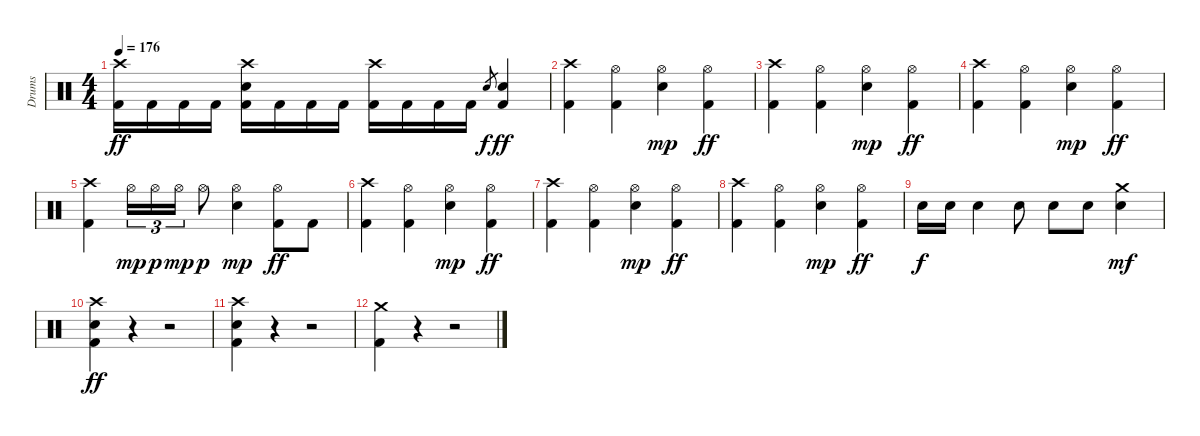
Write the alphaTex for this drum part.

\track ("Drums" "Drums") {instrument percussion}
\staff {score}
\articulation defaults
\ts (4 4)
\tempo 176
\clef neutral
\ks c
("Crash high (hit)" "Kick (hit) 2").16{dy ff} "Kick (hit) 2".16 "Kick (hit) 2".16 "Kick (hit) 2".16 ("Crash high (hit)" "Electric Snare (hit)" "Kick (hit) 2").16 "Kick (hit) 2".16 "Kick (hit) 2".16 "Kick (hit) 2".16 ("Crash high (hit)" "Kick (hit) 2").16 "Kick (hit) 2".16 "Kick (hit) 2".16 "Kick (hit) 2".16 "Electric Snare (hit)".8{gr dy f} ("Electric Snare (hit)" "Kick (hit) 2").4{dy ff} |
("Crash high (hit)" "Kick (hit) 2").4 ("Hi-Hat (open)" "Kick (hit) 2").4 ("Hi-Hat (open)" "Electric Snare (hit)").4{dy mp} ("Hi-Hat (open)" "Kick (hit) 2").4{dy ff} |
("Crash high (hit)" "Kick (hit) 2").4 ("Hi-Hat (open)" "Kick (hit) 2").4 ("Hi-Hat (open)" "Electric Snare (hit)").4{dy mp} ("Hi-Hat (open)" "Kick (hit) 2").4{dy ff} |
("Crash high (hit)" "Kick (hit) 2").4 ("Hi-Hat (open)" "Kick (hit) 2").4 ("Hi-Hat (open)" "Electric Snare (hit)").4{dy mp} ("Hi-Hat (open)" "Kick (hit) 2").4{dy ff} |
("Crash high (hit)" "Kick (hit) 2").4 "Hi-Hat (open)".16{tu (3 2) dy mp} "Hi-Hat (open)".16{tu (3 2) dy p} "Hi-Hat (open)".16{tu (3 2) dy mp} "Hi-Hat (open)".8{dy p} ("Hi-Hat (open)" "Electric Snare (hit)").4{dy mp} ("Hi-Hat (open)" "Kick (hit) 2").8{dy ff} "Kick (hit) 2".8 |
("Crash high (hit)" "Kick (hit) 2").4 ("Hi-Hat (open)" "Kick (hit) 2").4 ("Hi-Hat (open)" "Electric Snare (hit)").4{dy mp} ("Hi-Hat (open)" "Kick (hit) 2").4{dy ff} |
("Crash high (hit)" "Kick (hit) 2").4 ("Hi-Hat (open)" "Kick (hit) 2").4 ("Hi-Hat (open)" "Electric Snare (hit)").4{dy mp} ("Hi-Hat (open)" "Kick (hit) 2").4{dy ff} |
("Crash high (hit)" "Kick (hit) 2").4 ("Hi-Hat (open)" "Kick (hit) 2").4 ("Hi-Hat (open)" "Electric Snare (hit)").4{dy mp} ("Hi-Hat (open)" "Kick (hit) 2").4{dy ff} |
"Electric Snare (hit)".16{dy f} "Electric Snare (hit)".16 "Electric Snare (hit)".4 "Electric Snare (hit)".8 "Electric Snare (hit)".8 "Electric Snare (hit)".8 ("Crash medium (hit)" "Electric Snare (hit)").4{dy mf} |
("Crash high (hit)" "Electric Snare (hit)" "Kick (hit) 2").4{dy ff} r.4 r.2 |
("Crash high (hit)" "Electric Snare (hit)" "Kick (hit) 2").4 r.4 r.2 |
("Crash medium (hit)" "Kick (hit) 2").4 r.4 r.2
